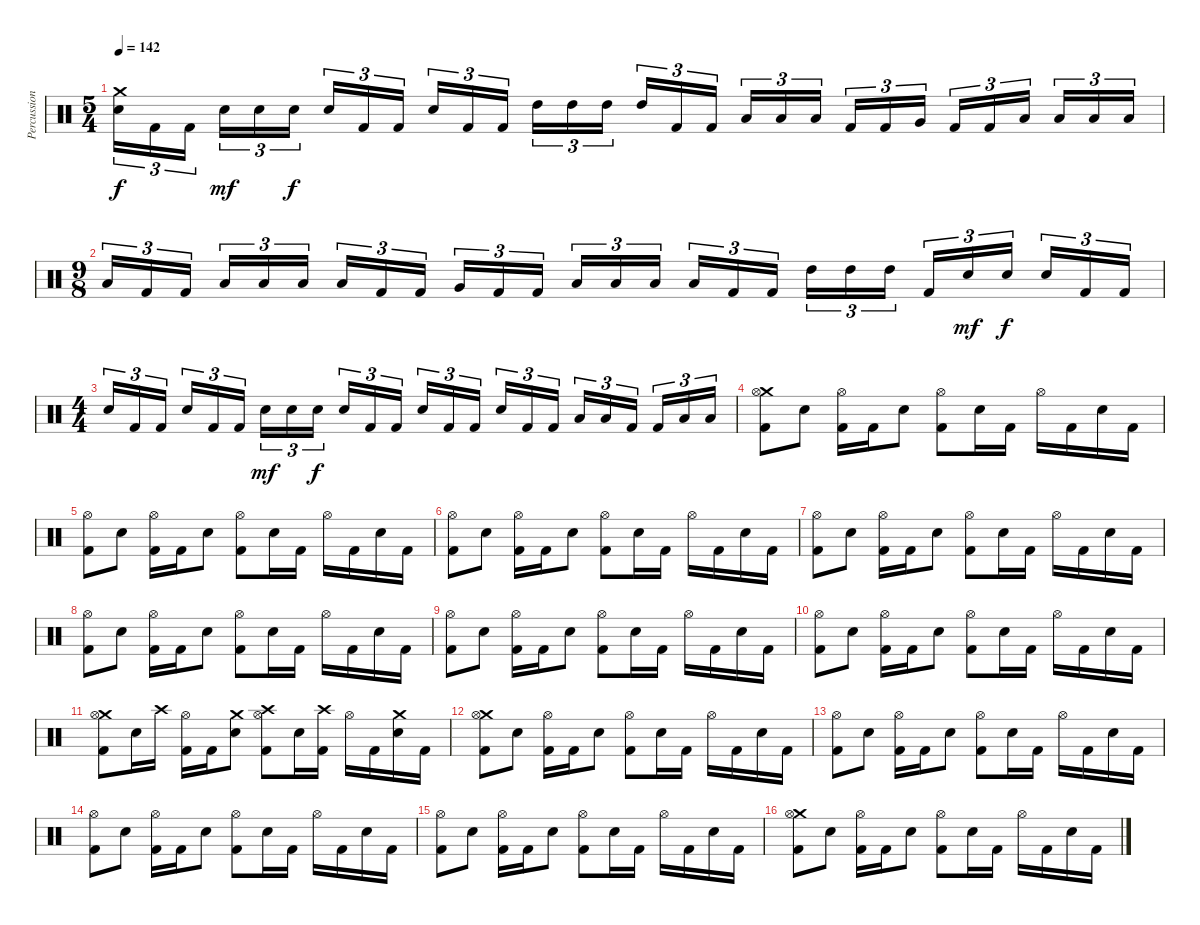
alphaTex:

\track ("Percussion" "Percussion") {instrument percussion}
\staff {score}
\articulation defaults
\ts (5 4)
\tempo 142
\clef neutral
\ks c
("Crash medium (hit)" "Electric Snare (hit)").16{tu (3 2) dy f} "Kick (hit) 2".16{tu (3 2)} "Kick (hit) 2".16{tu (3 2)} "Electric Snare (hit)".16{tu (3 2) dy mf} "Electric Snare (hit)".16{tu (3 2)} "Electric Snare (hit)".16{tu (3 2) dy f} "Electric Snare (hit)".16{tu (3 2)} "Kick (hit) 2".16{tu (3 2)} "Kick (hit) 2".16{tu (3 2)} "Electric Snare (hit)".16{tu (3 2)} "Kick (hit) 2".16{tu (3 2)} "Kick (hit) 2".16{tu (3 2)} "High Tom (hit)".16{tu (3 2)} "High Tom (hit)".16{tu (3 2)} "High Tom (hit)".16{tu (3 2)} "High Tom (hit)".16{tu (3 2)} "Kick (hit) 2".16{tu (3 2)} "Kick (hit) 2".16{tu (3 2)} "Low Tom (hit)".16{tu (3 2)} "Low Tom (hit)".16{tu (3 2)} "Low Tom (hit)".16{tu (3 2)} "Kick (hit) 2".16{tu (3 2)} "Kick (hit) 2".16{tu (3 2)} "Very Low Tom (hit)".16{tu (3 2)} "Kick (hit) 2".16{tu (3 2)} "Kick (hit) 2".16{tu (3 2)} "Low Floor Tom (hit)".16{tu (3 2)} "Low Floor Tom (hit)".16{tu (3 2)} "Low Floor Tom (hit)".16{tu (3 2)} "Low Floor Tom (hit)".16{tu (3 2)} |
\ts (9 8)
"Low Floor Tom (hit)".16{tu (3 2)} "Kick (hit) 2".16{tu (3 2)} "Kick (hit) 2".16{tu (3 2)} "Low Tom (hit)".16{tu (3 2)} "Low Tom (hit)".16{tu (3 2)} "Low Tom (hit)".16{tu (3 2)} "Low Tom (hit)".16{tu (3 2)} "Kick (hit) 2".16{tu (3 2)} "Kick (hit) 2".16{tu (3 2)} "Very Low Tom (hit)".16{tu (3 2)} "Kick (hit) 2".16{tu (3 2)} "Kick (hit) 2".16{tu (3 2)} "Low Floor Tom (hit)".16{tu (3 2)} "Low Floor Tom (hit)".16{tu (3 2)} "Low Floor Tom (hit)".16{tu (3 2)} "Low Floor Tom (hit)".16{tu (3 2)} "Kick (hit) 2".16{tu (3 2)} "Kick (hit) 2".16{tu (3 2)} "High Tom (hit)".16{tu (3 2)} "High Tom (hit)".16{tu (3 2)} "High Tom (hit)".16{tu (3 2)} "Kick (hit) 2".16{tu (3 2)} "Electric Snare (hit)".16{tu (3 2) dy mf} "Electric Snare (hit)".16{tu (3 2) dy f} "Electric Snare (hit)".16{tu (3 2)} "Kick (hit) 2".16{tu (3 2)} "Kick (hit) 2".16{tu (3 2)} |
\ts (4 4)
"Electric Snare (hit)".16{tu (3 2)} "Kick (hit) 2".16{tu (3 2)} "Kick (hit) 2".16{tu (3 2)} "Electric Snare (hit)".16{tu (3 2)} "Kick (hit) 2".16{tu (3 2)} "Kick (hit) 2".16{tu (3 2)} "Electric Snare (hit)".16{tu (3 2) dy mf} "Electric Snare (hit)".16{tu (3 2)} "Electric Snare (hit)".16{tu (3 2) dy f} "Electric Snare (hit)".16{tu (3 2)} "Kick (hit) 2".16{tu (3 2)} "Kick (hit) 2".16{tu (3 2)} "Electric Snare (hit)".16{tu (3 2)} "Kick (hit) 2".16{tu (3 2)} "Kick (hit) 2".16{tu (3 2)} "Electric Snare (hit)".16{tu (3 2)} "Kick (hit) 2".16{tu (3 2)} "Kick (hit) 2".16{tu (3 2)} "Low Floor Tom (hit)".16{tu (3 2)} "Low Floor Tom (hit)".16{tu (3 2)} "Kick (hit) 2".16{tu (3 2)} "Kick (hit) 2".16{tu (3 2)} "Low Floor Tom (hit)".16{tu (3 2)} "Low Floor Tom (hit)".16{tu (3 2)} |
("Crash medium (hit)" "Hi-Hat (open)" "Kick (hit) 2").8 "Electric Snare (hit)".8 ("Hi-Hat (open)" "Kick (hit) 2").16 "Kick (hit) 2".16 "Electric Snare (hit)".8 ("Hi-Hat (open)" "Kick (hit) 2").8 "Electric Snare (hit)".16 "Kick (hit) 2".16 "Hi-Hat (open)".16 "Kick (hit) 2".16 "Electric Snare (hit)".16 "Kick (hit) 2".16 |
("Hi-Hat (open)" "Kick (hit) 2").8 "Electric Snare (hit)".8 ("Hi-Hat (open)" "Kick (hit) 2").16 "Kick (hit) 2".16 "Electric Snare (hit)".8 ("Hi-Hat (open)" "Kick (hit) 2").8 "Electric Snare (hit)".16 "Kick (hit) 2".16 "Hi-Hat (open)".16 "Kick (hit) 2".16 "Electric Snare (hit)".16 "Kick (hit) 2".16 |
("Hi-Hat (open)" "Kick (hit) 2").8 "Electric Snare (hit)".8 ("Hi-Hat (open)" "Kick (hit) 2").16 "Kick (hit) 2".16 "Electric Snare (hit)".8 ("Hi-Hat (open)" "Kick (hit) 2").8 "Electric Snare (hit)".16 "Kick (hit) 2".16 "Hi-Hat (open)".16 "Kick (hit) 2".16 "Electric Snare (hit)".16 "Kick (hit) 2".16 |
("Hi-Hat (open)" "Kick (hit) 2").8 "Electric Snare (hit)".8 ("Hi-Hat (open)" "Kick (hit) 2").16 "Kick (hit) 2".16 "Electric Snare (hit)".8 ("Hi-Hat (open)" "Kick (hit) 2").8 "Electric Snare (hit)".16 "Kick (hit) 2".16 "Hi-Hat (open)".16 "Kick (hit) 2".16 "Electric Snare (hit)".16 "Kick (hit) 2".16 |
("Hi-Hat (open)" "Kick (hit) 2").8 "Electric Snare (hit)".8 ("Hi-Hat (open)" "Kick (hit) 2").16 "Kick (hit) 2".16 "Electric Snare (hit)".8 ("Hi-Hat (open)" "Kick (hit) 2").8 "Electric Snare (hit)".16 "Kick (hit) 2".16 "Hi-Hat (open)".16 "Kick (hit) 2".16 "Electric Snare (hit)".16 "Kick (hit) 2".16 |
("Hi-Hat (open)" "Kick (hit) 2").8 "Electric Snare (hit)".8 ("Hi-Hat (open)" "Kick (hit) 2").16 "Kick (hit) 2".16 "Electric Snare (hit)".8 ("Hi-Hat (open)" "Kick (hit) 2").8 "Electric Snare (hit)".16 "Kick (hit) 2".16 "Hi-Hat (open)".16 "Kick (hit) 2".16 "Electric Snare (hit)".16 "Kick (hit) 2".16 |
("Hi-Hat (open)" "Kick (hit) 2").8 "Electric Snare (hit)".8 ("Hi-Hat (open)" "Kick (hit) 2").16 "Kick (hit) 2".16 "Electric Snare (hit)".8 ("Hi-Hat (open)" "Kick (hit) 2").8 "Electric Snare (hit)".16 "Kick (hit) 2".16 "Hi-Hat (open)".16 "Kick (hit) 2".16 "Electric Snare (hit)".16 "Kick (hit) 2".16 |
("Crash medium (hit)" "Hi-Hat (open)" "Kick (hit) 2").8 "Electric Snare (hit)".16 "Crash high (hit)".16 ("Hi-Hat (open)" "Kick (hit) 2").16 "Kick (hit) 2".16 ("Crash medium (hit)" "Electric Snare (hit)").8 ("Crash high (hit)" "Hi-Hat (open)" "Kick (hit) 2").8 "Electric Snare (hit)".16 ("Crash high (hit)" "Kick (hit) 2").16 "Hi-Hat (open)".16 "Kick (hit) 2".16 ("Crash medium (hit)" "Electric Snare (hit)").16 "Kick (hit) 2".16 |
("Crash medium (hit)" "Hi-Hat (open)" "Kick (hit) 2").8 "Electric Snare (hit)".8 ("Hi-Hat (open)" "Kick (hit) 2").16 "Kick (hit) 2".16 "Electric Snare (hit)".8 ("Hi-Hat (open)" "Kick (hit) 2").8 "Electric Snare (hit)".16 "Kick (hit) 2".16 "Hi-Hat (open)".16 "Kick (hit) 2".16 "Electric Snare (hit)".16 "Kick (hit) 2".16 |
("Hi-Hat (open)" "Kick (hit) 2").8 "Electric Snare (hit)".8 ("Hi-Hat (open)" "Kick (hit) 2").16 "Kick (hit) 2".16 "Electric Snare (hit)".8 ("Hi-Hat (open)" "Kick (hit) 2").8 "Electric Snare (hit)".16 "Kick (hit) 2".16 "Hi-Hat (open)".16 "Kick (hit) 2".16 "Electric Snare (hit)".16 "Kick (hit) 2".16 |
("Hi-Hat (open)" "Kick (hit) 2").8 "Electric Snare (hit)".8 ("Hi-Hat (open)" "Kick (hit) 2").16 "Kick (hit) 2".16 "Electric Snare (hit)".8 ("Hi-Hat (open)" "Kick (hit) 2").8 "Electric Snare (hit)".16 "Kick (hit) 2".16 "Hi-Hat (open)".16 "Kick (hit) 2".16 "Electric Snare (hit)".16 "Kick (hit) 2".16 |
("Hi-Hat (open)" "Kick (hit) 2").8 "Electric Snare (hit)".8 ("Hi-Hat (open)" "Kick (hit) 2").16 "Kick (hit) 2".16 "Electric Snare (hit)".8 ("Hi-Hat (open)" "Kick (hit) 2").8 "Electric Snare (hit)".16 "Kick (hit) 2".16 "Hi-Hat (open)".16 "Kick (hit) 2".16 "Electric Snare (hit)".16 "Kick (hit) 2".16 |
("Crash medium (hit)" "Hi-Hat (open)" "Kick (hit) 2").8 "Electric Snare (hit)".8 ("Hi-Hat (open)" "Kick (hit) 2").16 "Kick (hit) 2".16 "Electric Snare (hit)".8 ("Hi-Hat (open)" "Kick (hit) 2").8 "Electric Snare (hit)".16 "Kick (hit) 2".16 "Hi-Hat (open)".16 "Kick (hit) 2".16 "Electric Snare (hit)".16 "Kick (hit) 2".16
